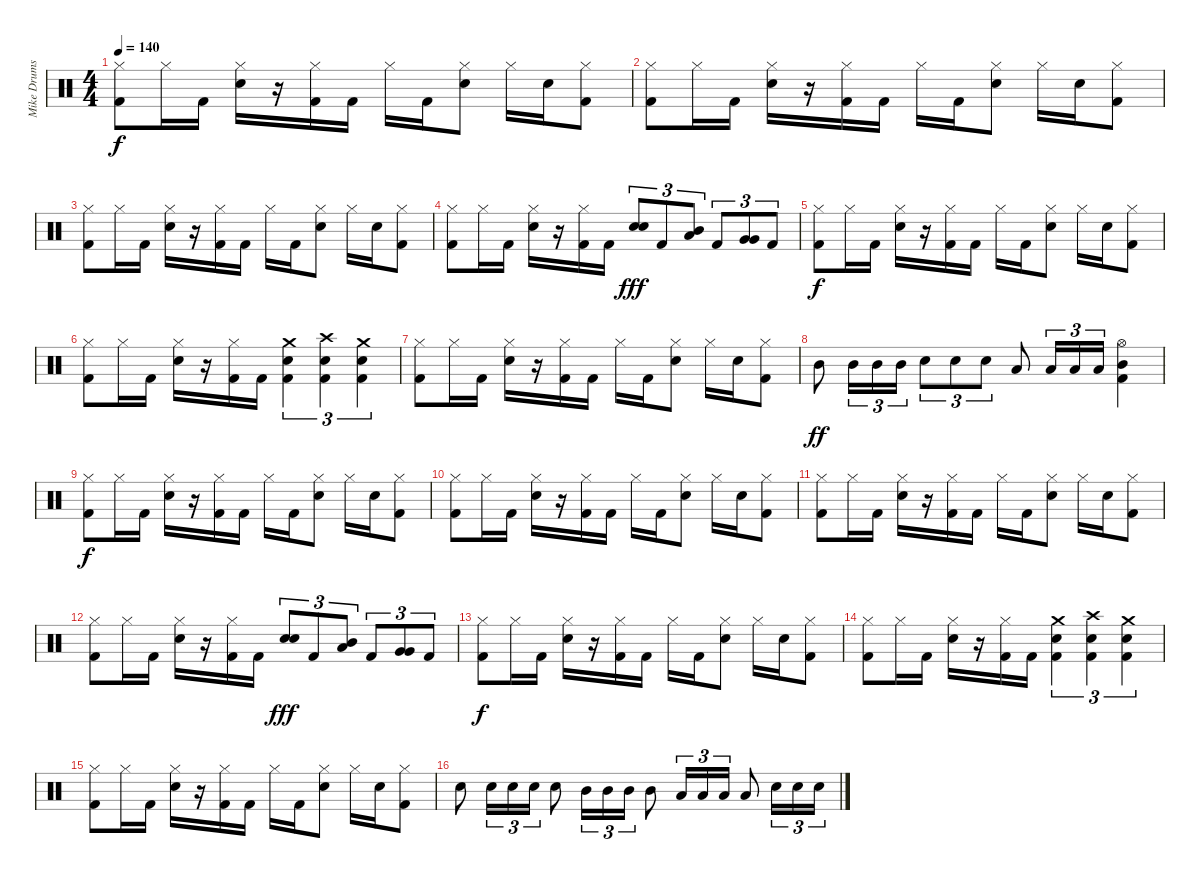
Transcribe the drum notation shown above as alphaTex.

\track ("Mike Drums" "Mike Drums") {instrument percussion}
\staff {score}
\articulation defaults
\ts (4 4)
\tempo 140
\clef neutral
\ks c
("Hi-Hat (closed)" "Kick (hit) 2").8{dy f} "Hi-Hat (closed)".16 "Kick (hit) 2".16 ("Hi-Hat (closed)" "Electric Snare (hit)").16 r.16 ("Hi-Hat (closed)" "Kick (hit) 2").16 "Kick (hit) 2".16 "Hi-Hat (closed)".16 "Kick (hit) 2".16 ("Hi-Hat (closed)" "Electric Snare (hit)").8 "Hi-Hat (closed)".16 "Electric Snare (hit)".16 ("Hi-Hat (closed)" "Kick (hit) 2").8 |
("Hi-Hat (closed)" "Kick (hit) 2").8 "Hi-Hat (closed)".16 "Kick (hit) 2".16 ("Hi-Hat (closed)" "Electric Snare (hit)").16 r.16 ("Hi-Hat (closed)" "Kick (hit) 2").16 "Kick (hit) 2".16 "Hi-Hat (closed)".16 "Kick (hit) 2".16 ("Hi-Hat (closed)" "Electric Snare (hit)").8 "Hi-Hat (closed)".16 "Electric Snare (hit)".16 ("Hi-Hat (closed)" "Kick (hit) 2").8 |
("Hi-Hat (closed)" "Kick (hit) 2").8 "Hi-Hat (closed)".16 "Kick (hit) 2".16 ("Hi-Hat (closed)" "Electric Snare (hit)").16 r.16 ("Hi-Hat (closed)" "Kick (hit) 2").16 "Kick (hit) 2".16 "Hi-Hat (closed)".16 "Kick (hit) 2".16 ("Hi-Hat (closed)" "Electric Snare (hit)").8 "Hi-Hat (closed)".16 "Electric Snare (hit)".16 ("Hi-Hat (closed)" "Kick (hit) 2").8 |
("Hi-Hat (closed)" "Kick (hit) 2").8 "Hi-Hat (closed)".16 "Kick (hit) 2".16 ("Hi-Hat (closed)" "Electric Snare (hit)").16 r.16 ("Hi-Hat (closed)" "Kick (hit) 2").16 "Kick (hit) 2".16 ("Electric Snare (hit)" "Electric Snare (hit)").8{tu (3 2) dy fff} "Kick (hit) 2".8{tu (3 2)} ("Mid Tom (hit)" "Low Tom (hit)").8{tu (3 2)} "Kick (hit) 2".8{tu (3 2)} ("Very Low Tom (hit)" "Very Low Tom (hit)").8{tu (3 2)} "Kick (hit) 2".8{tu (3 2)} |
("Hi-Hat (closed)" "Kick (hit) 2").8{dy f} "Hi-Hat (closed)".16 "Kick (hit) 2".16 ("Hi-Hat (closed)" "Electric Snare (hit)").16 r.16 ("Hi-Hat (closed)" "Kick (hit) 2").16 "Kick (hit) 2".16 "Hi-Hat (closed)".16 "Kick (hit) 2".16 ("Hi-Hat (closed)" "Electric Snare (hit)").8 "Hi-Hat (closed)".16 "Electric Snare (hit)".16 ("Hi-Hat (closed)" "Kick (hit) 2").8 |
("Hi-Hat (closed)" "Kick (hit) 2").8 "Hi-Hat (closed)".16 "Kick (hit) 2".16 ("Hi-Hat (closed)" "Electric Snare (hit)").16 r.16 ("Hi-Hat (closed)" "Kick (hit) 2").16 "Kick (hit) 2".16 ("Crash medium (hit)" "Electric Snare (hit)" "Kick (hit) 2").4{tu (3 2)} ("Crash high (hit)" "Electric Snare (hit)" "Kick (hit) 2").4{tu (3 2)} ("Crash medium (hit)" "Electric Snare (hit)" "Kick (hit) 2").4{tu (3 2)} |
("Hi-Hat (closed)" "Kick (hit) 2").8 "Hi-Hat (closed)".16 "Kick (hit) 2".16 ("Hi-Hat (closed)" "Electric Snare (hit)").16 r.16 ("Hi-Hat (closed)" "Kick (hit) 2").16 "Kick (hit) 2".16 "Hi-Hat (closed)".16 "Kick (hit) 2".16 ("Hi-Hat (closed)" "Electric Snare (hit)").8 "Hi-Hat (closed)".16 "Electric Snare (hit)".16 ("Hi-Hat (closed)" "Kick (hit) 2").8 |
"Mid Tom (hit)".8{dy ff} "Mid Tom (hit)".16{tu (3 2)} "Mid Tom (hit)".16{tu (3 2)} "Mid Tom (hit)".16{tu (3 2)} "Electric Snare (hit)".8{tu (3 2)} "Electric Snare (hit)".8{tu (3 2)} "Electric Snare (hit)".8{tu (3 2)} "Low Tom (hit)".8 "Low Tom (hit)".16{tu (3 2)} "Low Tom (hit)".16{tu (3 2)} "Low Tom (hit)".16{tu (3 2)} ("Hi-Hat (open)" "Mid Tom (hit)" "Kick (hit) 2").4 |
("Hi-Hat (closed)" "Kick (hit) 2").8{dy f} "Hi-Hat (closed)".16 "Kick (hit) 2".16 ("Hi-Hat (closed)" "Electric Snare (hit)").16 r.16 ("Hi-Hat (closed)" "Kick (hit) 2").16 "Kick (hit) 2".16 "Hi-Hat (closed)".16 "Kick (hit) 2".16 ("Hi-Hat (closed)" "Electric Snare (hit)").8 "Hi-Hat (closed)".16 "Electric Snare (hit)".16 ("Hi-Hat (closed)" "Kick (hit) 2").8 |
("Hi-Hat (closed)" "Kick (hit) 2").8 "Hi-Hat (closed)".16 "Kick (hit) 2".16 ("Hi-Hat (closed)" "Electric Snare (hit)").16 r.16 ("Hi-Hat (closed)" "Kick (hit) 2").16 "Kick (hit) 2".16 "Hi-Hat (closed)".16 "Kick (hit) 2".16 ("Hi-Hat (closed)" "Electric Snare (hit)").8 "Hi-Hat (closed)".16 "Electric Snare (hit)".16 ("Hi-Hat (closed)" "Kick (hit) 2").8 |
("Hi-Hat (closed)" "Kick (hit) 2").8 "Hi-Hat (closed)".16 "Kick (hit) 2".16 ("Hi-Hat (closed)" "Electric Snare (hit)").16 r.16 ("Hi-Hat (closed)" "Kick (hit) 2").16 "Kick (hit) 2".16 "Hi-Hat (closed)".16 "Kick (hit) 2".16 ("Hi-Hat (closed)" "Electric Snare (hit)").8 "Hi-Hat (closed)".16 "Electric Snare (hit)".16 ("Hi-Hat (closed)" "Kick (hit) 2").8 |
("Hi-Hat (closed)" "Kick (hit) 2").8 "Hi-Hat (closed)".16 "Kick (hit) 2".16 ("Hi-Hat (closed)" "Electric Snare (hit)").16 r.16 ("Hi-Hat (closed)" "Kick (hit) 2").16 "Kick (hit) 2".16 ("Electric Snare (hit)" "Electric Snare (hit)").8{tu (3 2) dy fff} "Kick (hit) 2".8{tu (3 2)} ("Mid Tom (hit)" "Low Tom (hit)").8{tu (3 2)} "Kick (hit) 2".8{tu (3 2)} ("Very Low Tom (hit)" "Very Low Tom (hit)").8{tu (3 2)} "Kick (hit) 2".8{tu (3 2)} |
("Hi-Hat (closed)" "Kick (hit) 2").8{dy f} "Hi-Hat (closed)".16 "Kick (hit) 2".16 ("Hi-Hat (closed)" "Electric Snare (hit)").16 r.16 ("Hi-Hat (closed)" "Kick (hit) 2").16 "Kick (hit) 2".16 "Hi-Hat (closed)".16 "Kick (hit) 2".16 ("Hi-Hat (closed)" "Electric Snare (hit)").8 "Hi-Hat (closed)".16 "Electric Snare (hit)".16 ("Hi-Hat (closed)" "Kick (hit) 2").8 |
("Hi-Hat (closed)" "Kick (hit) 2").8 "Hi-Hat (closed)".16 "Kick (hit) 2".16 ("Hi-Hat (closed)" "Electric Snare (hit)").16 r.16 ("Hi-Hat (closed)" "Kick (hit) 2").16 "Kick (hit) 2".16 ("Crash medium (hit)" "Electric Snare (hit)" "Kick (hit) 2").4{tu (3 2)} ("Crash high (hit)" "Electric Snare (hit)" "Kick (hit) 2").4{tu (3 2)} ("Crash medium (hit)" "Electric Snare (hit)" "Kick (hit) 2").4{tu (3 2)} |
("Hi-Hat (closed)" "Kick (hit) 2").8 "Hi-Hat (closed)".16 "Kick (hit) 2".16 ("Hi-Hat (closed)" "Electric Snare (hit)").16 r.16 ("Hi-Hat (closed)" "Kick (hit) 2").16 "Kick (hit) 2".16 "Hi-Hat (closed)".16 "Kick (hit) 2".16 ("Hi-Hat (closed)" "Electric Snare (hit)").8 "Hi-Hat (closed)".16 "Electric Snare (hit)".16 ("Hi-Hat (closed)" "Kick (hit) 2").8 |
"Electric Snare (hit)".8 "Electric Snare (hit)".16{tu (3 2)} "Electric Snare (hit)".16{tu (3 2)} "Electric Snare (hit)".16{tu (3 2)} "Electric Snare (hit)".8 "Mid Tom (hit)".16{tu (3 2)} "Mid Tom (hit)".16{tu (3 2)} "Mid Tom (hit)".16{tu (3 2)} "Mid Tom (hit)".8 "Low Tom (hit)".16{tu (3 2)} "Low Tom (hit)".16{tu (3 2)} "Low Tom (hit)".16{tu (3 2)} "Low Tom (hit)".8 "Electric Snare (hit)".16{tu (3 2)} "Electric Snare (hit)".16{tu (3 2)} "Electric Snare (hit)".16{tu (3 2)}
